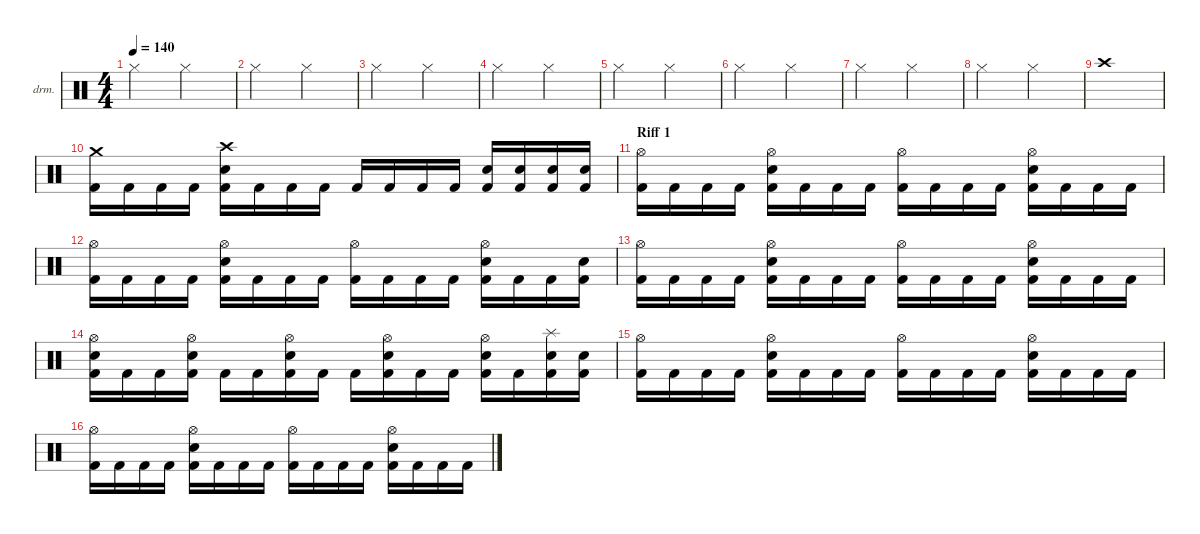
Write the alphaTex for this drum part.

\defaultSystemsLayout 4
\hideDynamics
\bracketExtendMode nobrackets
\firstSystemTrackNameOrientation horizontal
\otherSystemsTrackNameOrientation horizontal
\track ("Drumkit" "drm.") {instrument percussion}
\staff {score}
\articulation defaults
\ts (4 4)
\beaming (8 2 2 2 2)
\tempo 140
\clef neutral
\ks c "Hi-Hat (closed)".2{dy mf} "Hi-Hat (closed)".2
|
"Hi-Hat (closed)".2 "Hi-Hat (closed)".2 |
"Hi-Hat (closed)".2 "Hi-Hat (closed)".2 |
"Hi-Hat (closed)".2 "Hi-Hat (closed)".2 |
"Hi-Hat (closed)".2 "Hi-Hat (closed)".2 |
"Hi-Hat (closed)".2 "Hi-Hat (closed)".2 |
"Hi-Hat (closed)".2 "Hi-Hat (closed)".2 |
"Hi-Hat (closed)".2 "Hi-Hat (closed)".2 |
"Crash high (hit)".1 |
("Crash medium (hit)" "Kick (hit) 2").16{dy f} "Kick (hit) 2".16 "Kick (hit) 2".16 "Kick (hit) 2".16 ("Crash high (hit)" "Snare (hit) 2" "Kick (hit) 2").16 "Kick (hit) 2".16 "Kick (hit) 2".16 "Kick (hit) 2".16 "Kick (hit) 2".16 "Kick (hit) 2".16 "Kick (hit) 2".16 "Kick (hit) 2".16 ("Snare (hit) 2" "Kick (hit) 2").16 ("Snare (hit) 2" "Kick (hit) 2").16 ("Snare (hit) 2" "Kick (hit) 2").16 ("Snare (hit) 2" "Kick (hit) 2").16 |
\section ("" "Riff 1")
("Hi-Hat (open)" "Kick (hit) 2").16{dy ff} "Kick (hit) 2".16 "Kick (hit) 2".16 "Kick (hit) 2".16 ("Hi-Hat (open)" "Snare (hit) 2" "Kick (hit) 2").16 "Kick (hit) 2".16 "Kick (hit) 2".16 "Kick (hit) 2".16 ("Hi-Hat (open)" "Kick (hit) 2").16 "Kick (hit) 2".16 "Kick (hit) 2".16 "Kick (hit) 2".16 ("Hi-Hat (open)" "Snare (hit) 2" "Kick (hit) 2").16 "Kick (hit) 2".16 "Kick (hit) 2".16 "Kick (hit) 2".16 |
("Hi-Hat (open)" "Kick (hit) 2").16 "Kick (hit) 2".16 "Kick (hit) 2".16 "Kick (hit) 2".16 ("Hi-Hat (open)" "Snare (hit) 2" "Kick (hit) 2").16 "Kick (hit) 2".16 "Kick (hit) 2".16 "Kick (hit) 2".16 ("Hi-Hat (open)" "Kick (hit) 2").16 "Kick (hit) 2".16 "Kick (hit) 2".16 "Kick (hit) 2".16 ("Hi-Hat (open)" "Snare (hit) 2" "Kick (hit) 2").16 "Kick (hit) 2".16 "Kick (hit) 2".16 ("Snare (hit) 2" "Kick (hit) 2").16 |
("Hi-Hat (open)" "Kick (hit) 2").16 "Kick (hit) 2".16 "Kick (hit) 2".16 "Kick (hit) 2".16 ("Hi-Hat (open)" "Snare (hit) 2" "Kick (hit) 2").16 "Kick (hit) 2".16 "Kick (hit) 2".16 "Kick (hit) 2".16 ("Hi-Hat (open)" "Kick (hit) 2").16 "Kick (hit) 2".16 "Kick (hit) 2".16 "Kick (hit) 2".16 ("Hi-Hat (open)" "Snare (hit) 2" "Kick (hit) 2").16 "Kick (hit) 2".16 "Kick (hit) 2".16 "Kick (hit) 2".16 |
("Hi-Hat (open)" "Snare (hit) 2" "Kick (hit) 2").16 "Kick (hit) 2".16 "Kick (hit) 2".16 ("Hi-Hat (open)" "Snare (hit) 2" "Kick (hit) 2").16 "Kick (hit) 2".16 "Kick (hit) 2".16 ("Hi-Hat (open)" "Snare (hit) 2" "Kick (hit) 2").16 "Kick (hit) 2".16 "Kick (hit) 2".16 ("Hi-Hat (open)" "Snare (hit) 2" "Kick (hit) 2").16 "Kick (hit) 2".16 "Kick (hit) 2".16 ("Hi-Hat (open)" "Snare (hit) 2" "Kick (hit) 2").16 "Kick (hit) 2".16 ("Splash (hit)" "Snare (hit) 2" "Kick (hit) 2").16 ("Snare (hit) 2" "Kick (hit) 2").16 |
("Hi-Hat (open)" "Kick (hit) 2").16 "Kick (hit) 2".16 "Kick (hit) 2".16 "Kick (hit) 2".16 ("Hi-Hat (open)" "Snare (hit) 2" "Kick (hit) 2").16 "Kick (hit) 2".16 "Kick (hit) 2".16 "Kick (hit) 2".16 ("Hi-Hat (open)" "Kick (hit) 2").16 "Kick (hit) 2".16 "Kick (hit) 2".16 "Kick (hit) 2".16 ("Hi-Hat (open)" "Snare (hit) 2" "Kick (hit) 2").16 "Kick (hit) 2".16 "Kick (hit) 2".16 "Kick (hit) 2".16 |
("Hi-Hat (open)" "Kick (hit) 2").16 "Kick (hit) 2".16 "Kick (hit) 2".16 "Kick (hit) 2".16 ("Hi-Hat (open)" "Snare (hit) 2" "Kick (hit) 2").16 "Kick (hit) 2".16 "Kick (hit) 2".16 "Kick (hit) 2".16 ("Hi-Hat (open)" "Kick (hit) 2").16 "Kick (hit) 2".16 "Kick (hit) 2".16 "Kick (hit) 2".16 ("Hi-Hat (open)" "Snare (hit) 2" "Kick (hit) 2").16 "Kick (hit) 2".16 "Kick (hit) 2".16 "Kick (hit) 2".16
